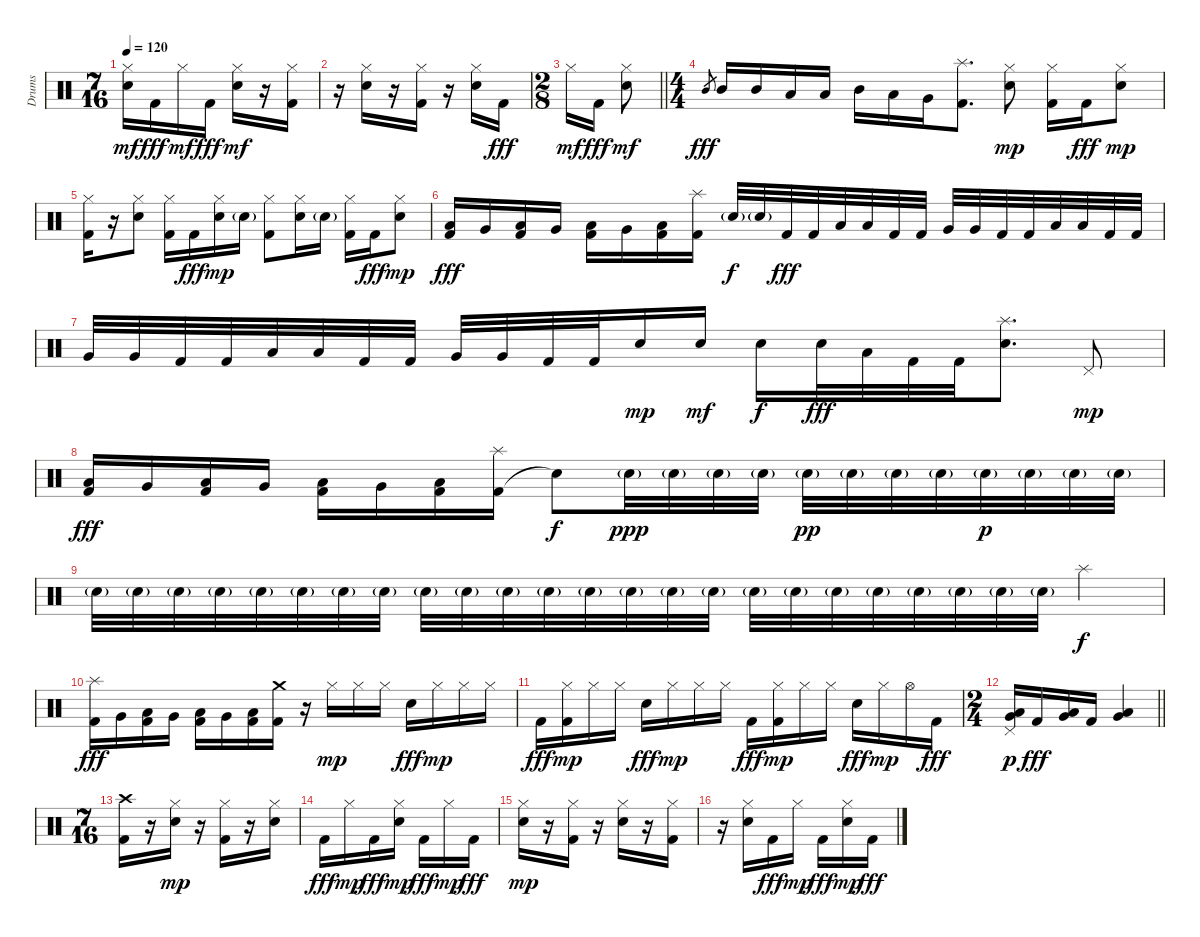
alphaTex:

\track ("Drums" "Drums") {instrument percussion}
\staff {score}
\articulation defaults
\ts (7 16)
\tempo 120
\clef neutral
\ks c
("Electric Snare (hit)" "Hi-Hat (closed)").16{dy mf} "Kick (hit) 2".16{dy fff} "Hi-Hat (closed)".16{dy mf} "Kick (hit) 2".16{dy fff} ("Electric Snare (hit)" "Hi-Hat (closed)").16{dy mf} r.16 ("Kick (hit) 2" "Hi-Hat (closed)").16 |
r.16 ("Electric Snare (hit)" "Hi-Hat (closed)").16 r.16 ("Kick (hit) 2" "Hi-Hat (closed)").16 r.16 ("Electric Snare (hit)" "Hi-Hat (closed)").16 "Kick (hit) 2".16{dy fff} |
\ts (2 8)
\barLineRight lightlight "Hi-Hat (closed)".16{dy mf} "Kick (hit) 2".16{dy fff}
("Electric Snare (hit)" "Hi-Hat (closed)").8{dy mf} |
\ts (4 4)
"Mid Tom (hit)".8{gr dy fff} "Mid Tom (hit)".16 "Mid Tom (hit)".16 "Low Tom (hit)".16 "Low Tom (hit)".16 "Mid Tom (hit)".16 "Low Tom (hit)".16 "Very Low Tom (hit)".16 ("Kick (hit) 2" "Splash (hit)").8{d} ("Electric Snare (hit)" "Hi-Hat (closed)").8{dy mp} ("Kick (hit) 2" "Hi-Hat (closed)").16 "Kick (hit) 2".16{dy fff} ("Electric Snare (hit)" "Hi-Hat (closed)").8{dy mp} |
("Kick (hit) 2" "Hi-Hat (closed)").16 r.16 ("Electric Snare (hit)" "Hi-Hat (closed)").8 ("Kick (hit) 2" "Hi-Hat (closed)").16 "Kick (hit) 2".16{dy fff} ("Electric Snare (hit)" "Hi-Hat (closed)").16{dy mp} "Electric Snare (hit)"{g}.16 ("Kick (hit) 2" "Hi-Hat (closed)").8 ("Electric Snare (hit)" "Hi-Hat (closed)").16 "Electric Snare (hit)"{g}.16 ("Kick (hit) 2" "Hi-Hat (closed)").16 "Kick (hit) 2".16{dy fff} ("Electric Snare (hit)" "Hi-Hat (closed)").8{dy mp} |
("Kick (hit) 2" "Low Tom (hit)").16{dy fff} "Very Low Tom (hit)".16 ("Kick (hit) 2" "Low Tom (hit)").16 "Very Low Tom (hit)".16 ("Kick (hit) 2" "Low Tom (hit)").16 "Very Low Tom (hit)".16 ("Kick (hit) 2" "Low Tom (hit)").16 ("Kick (hit) 2" "Splash (hit)").16 "Electric Snare (hit)"{g}.32{dy f} "Electric Snare (hit)"{g}.32 "Kick (hit) 2".32{dy fff} "Kick (hit) 2".32 "Low Tom (hit)".32 "Low Tom (hit)".32 "Kick (hit) 2".32 "Kick (hit) 2".32 "Very Low Tom (hit)".32 "Very Low Tom (hit)".32 "Kick (hit) 2".32 "Kick (hit) 2".32 "Low Tom (hit)".32 "Low Tom (hit)".32 "Kick (hit) 2".32 "Kick (hit) 2".32 |
"Very Low Tom (hit)".32 "Very Low Tom (hit)".32 "Kick (hit) 2".32 "Kick (hit) 2".32 "Low Tom (hit)".32 "Low Tom (hit)".32 "Kick (hit) 2".32 "Kick (hit) 2".32 "Very Low Tom (hit)".32 "Very Low Tom (hit)".32 "Kick (hit) 2".32 "Kick (hit) 2".32 "Electric Snare (hit)".16{dy mp} "Electric Snare (hit)".16{dy mf} "Electric Snare (hit)".16{dy f} "Electric Snare (hit)".32{dy fff} "Low Tom (hit)".32 "Kick (hit) 2".32 "Kick (hit) 2".32 ("Electric Snare (hit)" "Splash (hit)").8{d} "Pedal Hi-Hat (hit)".8{dy mp} |
("Kick (hit) 2" "Low Tom (hit)").16{dy fff} "Very Low Tom (hit)".16 ("Kick (hit) 2" "Low Tom (hit)").16 "Very Low Tom (hit)".16 ("Kick (hit) 2" "Low Tom (hit)").16 "Very Low Tom (hit)".16 ("Kick (hit) 2" "Low Tom (hit)").16 ("Kick (hit) 2" "Splash (hit)").16 "Snare (hit)"{t}.8{dy f} "Electric Snare (hit)"{g}.32{dy ppp} "Electric Snare (hit)"{g}.32 "Electric Snare (hit)"{g}.32 "Electric Snare (hit)"{g}.32 "Electric Snare (hit)"{g}.32{dy pp} "Electric Snare (hit)"{g}.32 "Electric Snare (hit)"{g}.32 "Electric Snare (hit)"{g}.32 "Electric Snare (hit)"{g}.32{dy p} "Electric Snare (hit)"{g}.32 "Electric Snare (hit)"{g}.32 "Electric Snare (hit)"{g}.32 |
"Electric Snare (hit)"{g}.32 "Electric Snare (hit)"{g}.32 "Electric Snare (hit)"{g}.32 "Electric Snare (hit)"{g}.32 "Electric Snare (hit)"{g}.32 "Electric Snare (hit)"{g}.32 "Electric Snare (hit)"{g}.32 "Electric Snare (hit)"{g}.32 "Electric Snare (hit)"{g}.32 "Electric Snare (hit)"{g}.32 "Electric Snare (hit)"{g}.32 "Electric Snare (hit)"{g}.32 "Electric Snare (hit)"{g}.32 "Electric Snare (hit)"{g}.32 "Electric Snare (hit)"{g}.32 "Electric Snare (hit)"{g}.32 "Electric Snare (hit)"{g}.32 "Electric Snare (hit)"{g}.32 "Electric Snare (hit)"{g}.32 "Electric Snare (hit)"{g}.32 "Electric Snare (hit)"{g}.32 "Electric Snare (hit)"{g}.32 "Electric Snare (hit)"{g}.32 "Electric Snare (hit)"{g}.32 "Splash (hit)".4{dy f} |
("Kick (hit) 2" "Splash (hit)").16{dy fff} "Very Low Tom (hit)".16 ("Kick (hit) 2" "Low Tom (hit)").16 "Very Low Tom (hit)".16 ("Kick (hit) 2" "Low Tom (hit)").16 "Very Low Tom (hit)".16 ("Kick (hit) 2" "Low Tom (hit)").16 ("Kick (hit) 2" "Crash medium (hit)").16 r.16 "Hi-Hat (closed)".16{dy mp} "Hi-Hat (closed)".16 "Hi-Hat (closed)".16 "Electric Snare (hit)".16{dy fff} "Hi-Hat (closed)".16{dy mp} "Hi-Hat (closed)".16 "Hi-Hat (closed)".16 |
"Kick (hit) 2".16{dy fff} ("Kick (hit) 2" "Hi-Hat (closed)").16{dy mp} "Hi-Hat (closed)".16 "Hi-Hat (closed)".16 "Electric Snare (hit)".16{dy fff} "Hi-Hat (closed)".16{dy mp} "Hi-Hat (closed)".16 "Hi-Hat (closed)".16 "Kick (hit) 2".16{dy fff} ("Kick (hit) 2" "Hi-Hat (closed)").16{dy mp} "Hi-Hat (closed)".16 "Hi-Hat (closed)".16 "Electric Snare (hit)".16{dy fff} "Hi-Hat (closed)".16{dy mp} "Hi-Hat (open)".16 "Kick (hit) 2".16{dy fff} |
\ts (2 4)
\barLineRight lightlight
("Low Floor Tom (hit)" "Very Low Tom (hit)" "Pedal Hi-Hat (hit)").16{dy p} "Kick (hit) 2".16{dy fff} ("Low Floor Tom (hit)" "Very Low Tom (hit)").16 "Kick (hit) 2".16 ("Low Floor Tom (hit)" "Very Low Tom (hit)").4 |
\ts (7 16)
("Kick (hit) 2" "Crash high (hit)").16 r.16 ("Electric Snare (hit)" "Hi-Hat (closed)").16{dy mp} r.16 ("Kick (hit) 2" "Hi-Hat (closed)").16 r.16 ("Electric Snare (hit)" "Hi-Hat (closed)").16 |
"Kick (hit) 2".16{dy fff} "Hi-Hat (closed)".16{dy mp} "Kick (hit) 2".16{dy fff} ("Electric Snare (hit)" "Hi-Hat (closed)").16{dy mp} "Kick (hit) 2".16{dy fff} "Hi-Hat (closed)".16{dy mp} "Kick (hit) 2".16{dy fff} |
("Electric Snare (hit)" "Hi-Hat (closed)").16{dy mp} r.16 ("Kick (hit) 2" "Hi-Hat (closed)").16 r.16 ("Electric Snare (hit)" "Hi-Hat (closed)").16 r.16 ("Kick (hit) 2" "Hi-Hat (closed)").16 |
r.16 ("Electric Snare (hit)" "Hi-Hat (closed)").16 "Kick (hit) 2".16{dy fff} "Hi-Hat (closed)".16{dy mp} "Kick (hit) 2".16{dy fff} ("Electric Snare (hit)" "Hi-Hat (closed)").16{dy mp} "Kick (hit) 2".16{dy fff}
